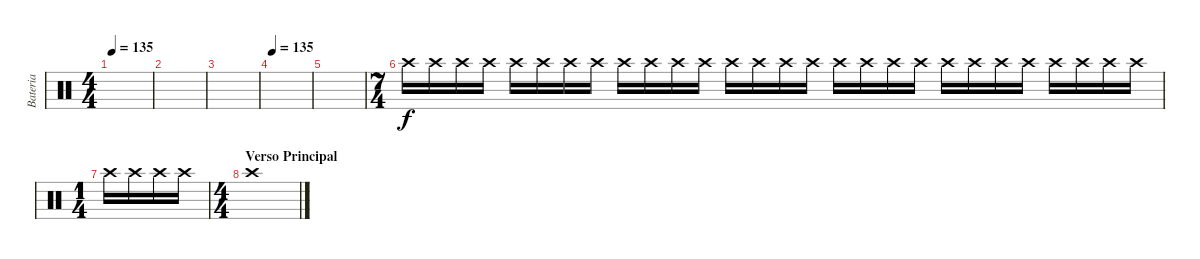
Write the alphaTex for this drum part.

\track ("Bateria" "Bateria") {instrument percussion}
\staff {score}
\articulation defaults
\ts (4 4)
\tempo 135
\clef neutral
\ks c
|
|
|
\tempo 135
|
|
\ts (7 4)
"Crash high (hit)".16{volume 0} "Crash high (hit)".16{volume 13} "Crash high (hit)".16 "Crash high (hit)".16 "Crash high (hit)".16 "Crash high (hit)".16 "Crash high (hit)".16 "Crash high (hit)".16 "Crash high (hit)".16 "Crash high (hit)".16 "Crash high (hit)".16 "Crash high (hit)".16 "Crash high (hit)".16 "Crash high (hit)".16 "Crash high (hit)".16 "Crash high (hit)".16 "Crash high (hit)".16 "Crash high (hit)".16 "Crash high (hit)".16 "Crash high (hit)".16 "Crash high (hit)".16 "Crash high (hit)".16 "Crash high (hit)".16 "Crash high (hit)".16 "Crash high (hit)".16 "Crash high (hit)".16 "Crash high (hit)".16 "Crash high (hit)".16 |
\ts (1 4)
"Crash high (hit)".16 "Crash high (hit)".16 "Crash high (hit)".16 "Crash high (hit)".16 |
\ts (4 4)
\section ("" "Verso Principal")
"Crash high (hit)".1
